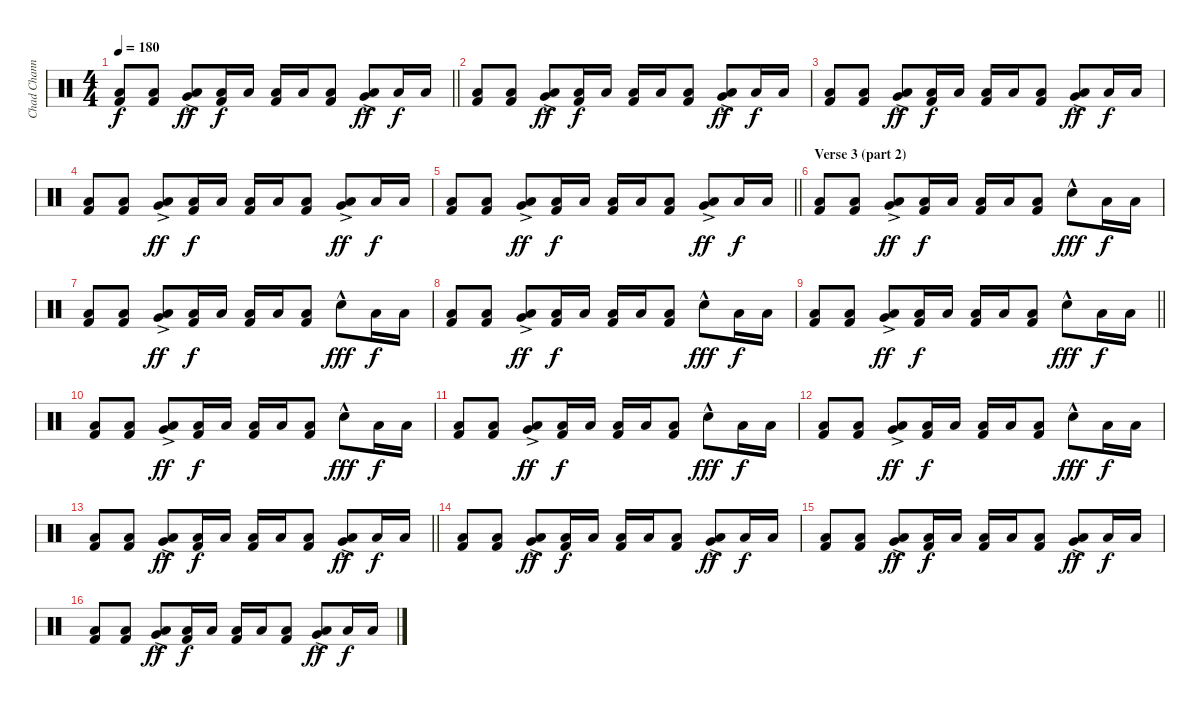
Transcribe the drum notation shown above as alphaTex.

\track ("Chad Channing" "Chad Chann") {instrument percussion}
\staff {score}
\articulation defaults
\ts (4 4)
\tempo 180
\clef neutral
\barLineRight lightlight
\ks c
("Low Tom (hit)" "Kick (hit) 2").8{dy f} ("Low Tom (hit)" "Kick (hit) 2").8 ("Very Low Tom (hit)"{ac} "Low Floor Tom (hit)"{ac}).8{dy ff} ("Low Tom (hit)" "Kick (hit) 2").16{dy f} "Low Tom (hit)".16 ("Low Tom (hit)" "Kick (hit) 2").16 "Low Tom (hit)".16 ("Low Tom (hit)" "Kick (hit) 2").8 ("Very Low Tom (hit)"{ac} "Low Floor Tom (hit)"{ac}).8{dy ff} "Low Tom (hit)".16{dy f} "Low Tom (hit)".16 |
("Low Tom (hit)" "Kick (hit) 2").8 ("Low Tom (hit)" "Kick (hit) 2").8 ("Very Low Tom (hit)"{ac} "Low Floor Tom (hit)"{ac}).8{dy ff} ("Low Tom (hit)" "Kick (hit) 2").16{dy f} "Low Tom (hit)".16 ("Low Tom (hit)" "Kick (hit) 2").16 "Low Tom (hit)".16 ("Low Tom (hit)" "Kick (hit) 2").8 ("Very Low Tom (hit)"{ac} "Low Floor Tom (hit)"{ac}).8{dy ff} "Low Tom (hit)".16{dy f} "Low Tom (hit)".16 |
("Low Tom (hit)" "Kick (hit) 2").8 ("Low Tom (hit)" "Kick (hit) 2").8 ("Very Low Tom (hit)"{ac} "Low Floor Tom (hit)"{ac}).8{dy ff} ("Low Tom (hit)" "Kick (hit) 2").16{dy f} "Low Tom (hit)".16 ("Low Tom (hit)" "Kick (hit) 2").16 "Low Tom (hit)".16 ("Low Tom (hit)" "Kick (hit) 2").8 ("Very Low Tom (hit)"{ac} "Low Floor Tom (hit)"{ac}).8{dy ff} "Low Tom (hit)".16{dy f} "Low Tom (hit)".16 |
("Low Tom (hit)" "Kick (hit) 2").8 ("Low Tom (hit)" "Kick (hit) 2").8 ("Very Low Tom (hit)"{ac} "Low Floor Tom (hit)"{ac}).8{dy ff} ("Low Tom (hit)" "Kick (hit) 2").16{dy f} "Low Tom (hit)".16 ("Low Tom (hit)" "Kick (hit) 2").16 "Low Tom (hit)".16 ("Low Tom (hit)" "Kick (hit) 2").8 ("Very Low Tom (hit)"{ac} "Low Floor Tom (hit)"{ac}).8{dy ff} "Low Tom (hit)".16{dy f} "Low Tom (hit)".16 |
\barLineRight lightlight
("Low Tom (hit)" "Kick (hit) 2").8 ("Low Tom (hit)" "Kick (hit) 2").8 ("Very Low Tom (hit)"{ac} "Low Floor Tom (hit)"{ac}).8{dy ff} ("Low Tom (hit)" "Kick (hit) 2").16{dy f} "Low Tom (hit)".16 ("Low Tom (hit)" "Kick (hit) 2").16 "Low Tom (hit)".16 ("Low Tom (hit)" "Kick (hit) 2").8 ("Very Low Tom (hit)"{ac} "Low Floor Tom (hit)"{ac}).8{dy ff} "Low Tom (hit)".16{dy f} "Low Tom (hit)".16 |
\section ("" "Verse 3 (part 2)")
("Low Tom (hit)" "Kick (hit) 2").8 ("Low Tom (hit)" "Kick (hit) 2").8 ("Very Low Tom (hit)"{ac} "Low Floor Tom (hit)"{ac}).8{dy ff} ("Low Tom (hit)" "Kick (hit) 2").16{dy f} "Low Tom (hit)".16 ("Low Tom (hit)" "Kick (hit) 2").16 "Low Tom (hit)".16 ("Low Tom (hit)" "Kick (hit) 2").8 "Snare (hit) 2"{hac}.8{dy fff} "Low Tom (hit)".16{dy f} "Low Tom (hit)".16 |
("Low Tom (hit)" "Kick (hit) 2").8 ("Low Tom (hit)" "Kick (hit) 2").8 ("Very Low Tom (hit)"{ac} "Low Floor Tom (hit)"{ac}).8{dy ff} ("Low Tom (hit)" "Kick (hit) 2").16{dy f} "Low Tom (hit)".16 ("Low Tom (hit)" "Kick (hit) 2").16 "Low Tom (hit)".16 ("Low Tom (hit)" "Kick (hit) 2").8 "Snare (hit) 2"{hac}.8{dy fff} "Low Tom (hit)".16{dy f} "Low Tom (hit)".16 |
("Low Tom (hit)" "Kick (hit) 2").8 ("Low Tom (hit)" "Kick (hit) 2").8 ("Very Low Tom (hit)"{ac} "Low Floor Tom (hit)"{ac}).8{dy ff} ("Low Tom (hit)" "Kick (hit) 2").16{dy f} "Low Tom (hit)".16 ("Low Tom (hit)" "Kick (hit) 2").16 "Low Tom (hit)".16 ("Low Tom (hit)" "Kick (hit) 2").8 "Snare (hit) 2"{hac}.8{dy fff} "Low Tom (hit)".16{dy f} "Low Tom (hit)".16 |
\barLineRight lightlight
("Low Tom (hit)" "Kick (hit) 2").8 ("Low Tom (hit)" "Kick (hit) 2").8 ("Very Low Tom (hit)"{ac} "Low Floor Tom (hit)"{ac}).8{dy ff} ("Low Tom (hit)" "Kick (hit) 2").16{dy f} "Low Tom (hit)".16 ("Low Tom (hit)" "Kick (hit) 2").16 "Low Tom (hit)".16 ("Low Tom (hit)" "Kick (hit) 2").8 "Snare (hit) 2"{hac}.8{dy fff} "Low Tom (hit)".16{dy f} "Low Tom (hit)".16 |
("Low Tom (hit)" "Kick (hit) 2").8 ("Low Tom (hit)" "Kick (hit) 2").8 ("Very Low Tom (hit)"{ac} "Low Floor Tom (hit)"{ac}).8{dy ff} ("Low Tom (hit)" "Kick (hit) 2").16{dy f} "Low Tom (hit)".16 ("Low Tom (hit)" "Kick (hit) 2").16 "Low Tom (hit)".16 ("Low Tom (hit)" "Kick (hit) 2").8 "Snare (hit) 2"{hac}.8{dy fff} "Low Tom (hit)".16{dy f} "Low Tom (hit)".16 |
("Low Tom (hit)" "Kick (hit) 2").8 ("Low Tom (hit)" "Kick (hit) 2").8 ("Very Low Tom (hit)"{ac} "Low Floor Tom (hit)"{ac}).8{dy ff} ("Low Tom (hit)" "Kick (hit) 2").16{dy f} "Low Tom (hit)".16 ("Low Tom (hit)" "Kick (hit) 2").16 "Low Tom (hit)".16 ("Low Tom (hit)" "Kick (hit) 2").8 "Snare (hit) 2"{hac}.8{dy fff} "Low Tom (hit)".16{dy f} "Low Tom (hit)".16 |
("Low Tom (hit)" "Kick (hit) 2").8 ("Low Tom (hit)" "Kick (hit) 2").8 ("Very Low Tom (hit)"{ac} "Low Floor Tom (hit)"{ac}).8{dy ff} ("Low Tom (hit)" "Kick (hit) 2").16{dy f} "Low Tom (hit)".16 ("Low Tom (hit)" "Kick (hit) 2").16 "Low Tom (hit)".16 ("Low Tom (hit)" "Kick (hit) 2").8 "Snare (hit) 2"{hac}.8{dy fff} "Low Tom (hit)".16{dy f} "Low Tom (hit)".16 |
\barLineRight lightlight
("Low Tom (hit)" "Kick (hit) 2").8 ("Low Tom (hit)" "Kick (hit) 2").8 ("Very Low Tom (hit)"{ac} "Low Floor Tom (hit)"{ac}).8{dy ff} ("Low Tom (hit)" "Kick (hit) 2").16{dy f} "Low Tom (hit)".16 ("Low Tom (hit)" "Kick (hit) 2").16 "Low Tom (hit)".16 ("Low Tom (hit)" "Kick (hit) 2").8 ("Very Low Tom (hit)"{ac} "Low Floor Tom (hit)"{ac}).8{dy ff} "Low Tom (hit)".16{dy f} "Low Tom (hit)".16 |
("Low Tom (hit)" "Kick (hit) 2").8 ("Low Tom (hit)" "Kick (hit) 2").8 ("Very Low Tom (hit)"{ac} "Low Floor Tom (hit)"{ac}).8{dy ff} ("Low Tom (hit)" "Kick (hit) 2").16{dy f} "Low Tom (hit)".16 ("Low Tom (hit)" "Kick (hit) 2").16 "Low Tom (hit)".16 ("Low Tom (hit)" "Kick (hit) 2").8 ("Very Low Tom (hit)"{ac} "Low Floor Tom (hit)"{ac}).8{dy ff} "Low Tom (hit)".16{dy f} "Low Tom (hit)".16 |
("Low Tom (hit)" "Kick (hit) 2").8 ("Low Tom (hit)" "Kick (hit) 2").8 ("Very Low Tom (hit)"{ac} "Low Floor Tom (hit)"{ac}).8{dy ff} ("Low Tom (hit)" "Kick (hit) 2").16{dy f} "Low Tom (hit)".16 ("Low Tom (hit)" "Kick (hit) 2").16 "Low Tom (hit)".16 ("Low Tom (hit)" "Kick (hit) 2").8 ("Very Low Tom (hit)"{ac} "Low Floor Tom (hit)"{ac}).8{dy ff} "Low Tom (hit)".16{dy f} "Low Tom (hit)".16 |
("Low Tom (hit)" "Kick (hit) 2").8 ("Low Tom (hit)" "Kick (hit) 2").8 ("Very Low Tom (hit)"{ac} "Low Floor Tom (hit)"{ac}).8{dy ff} ("Low Tom (hit)" "Kick (hit) 2").16{dy f} "Low Tom (hit)".16 ("Low Tom (hit)" "Kick (hit) 2").16 "Low Tom (hit)".16 ("Low Tom (hit)" "Kick (hit) 2").8 ("Very Low Tom (hit)"{ac} "Low Floor Tom (hit)"{ac}).8{dy ff} "Low Tom (hit)".16{dy f} "Low Tom (hit)".16
